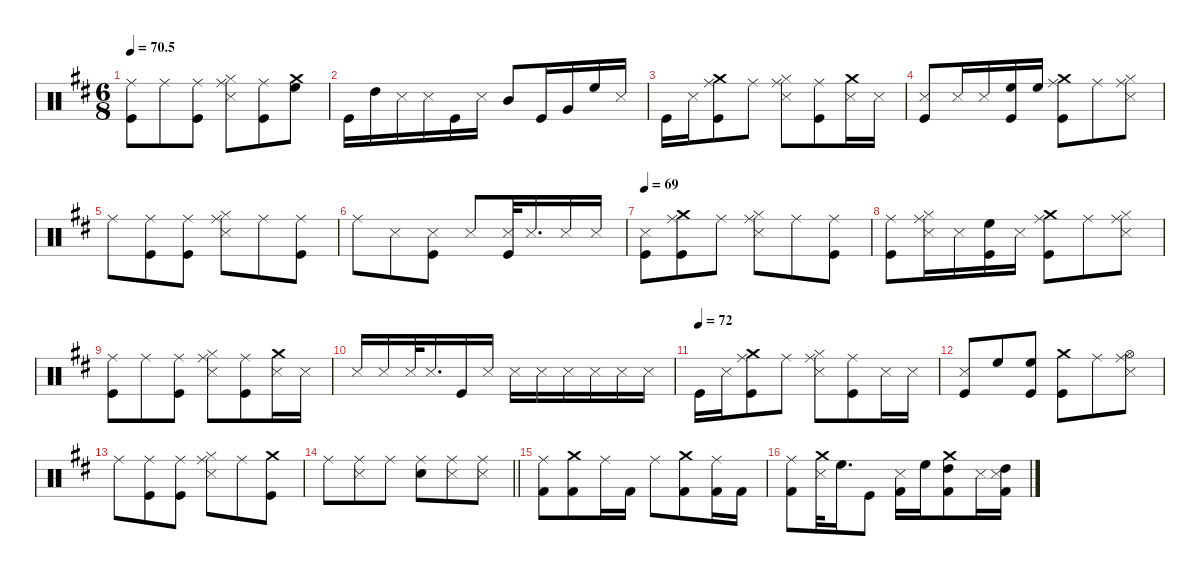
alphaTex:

\defaultSystemsLayout 4
\hideDynamics
\bracketExtendMode groupsimilarinstruments
\singleTrackTrackNamePolicy hidden
\multiTrackTrackNamePolicy hidden
\firstSystemTrackNameMode fullname
\firstSystemTrackNameOrientation horizontal
\otherSystemsTrackNameOrientation horizontal
\track ("Drumkit" "drm.") {defaultSystemsLayout 4 instrument percussion}
\staff {score}
\articulation defaults
\ts (6 8)
\tempo
70.5
\accidentals auto
\clef neutral
\ottava regular
\simile none
\ks bminor
("Kick (hit)"{acc forcenatural} "Ride (middle)"{acc #}).8{dy fff beam Down} "Ride (middle)"{acc #}.8{dy f beam Down} ("Kick (hit)"{acc forcenatural} "Ride (middle)"{acc #}).8{beam Down} ("Hi-Hat (closed)"{acc #} "Ride (middle)"{acc #} "Snare (side stick) 3"{acc forcenatural}).8{dy fff beam Down} ("Kick (hit)"{acc forcenatural} "Ride (middle)"{acc #}).8{dy f beam Down} ("High Floor Tom (hit)"{acc forcenatural} "Crash medium (hit)"{acc forcenatural}).8{dy fff beam Down} |
"Kick (hit)"{acc forcenatural}.16{dy f beam Down} "High Tom (hit)"{acc forcenatural}.16{beam Down} "Snare (side stick) 3"{acc forcenatural}.16{beam Down} "Snare (side stick) 3"{acc forcenatural}.16{dy mf beam Down} "Kick (hit)"{acc forcenatural}.16{dy f beam Down} "Snare (side stick) 3"{acc forcenatural}.16{beam Down} "Mid Tom (hit)"{acc forcenatural}.8{beam Up} "Kick (hit)"{acc forcenatural}.16{beam Up} "Very Low Tom (hit)"{acc forcenatural}.16{beam Up} "High Floor Tom (hit)"{acc forcenatural}.16{dy mp beam Up} "Snare (side stick) 3"{acc forcenatural}.16{beam Up} |
"Kick (hit)"{acc forcenatural}.16{dy f beam Down} "Snare (side stick) 3"{acc forcenatural}.16{beam Down} ("Crash medium (hit)"{acc forcenatural} "Kick (hit)"{acc forcenatural} "Ride (middle)"{acc #}).8{dy fff beam Down} "Ride (middle)"{acc #}.8{dy f beam Down} ("Snare (side stick) 3"{acc forcenatural} "Hi-Hat (closed)"{acc #} "Ride (middle)"{acc #}).8{dy fff beam Down} ("Kick (hit)"{acc forcenatural} "Ride (middle)"{acc #}).8{beam Down} ("Snare (side stick) 3"{acc forcenatural} "Crash medium (hit)"{acc forcenatural}).16{dy p beam Down} "Snare (side stick) 3"{acc forcenatural}.16{beam Down} |
("Kick (hit)"{acc forcenatural} "Snare (side stick) 3"{acc forcenatural}).8{dy f beam Up} "Snare (side stick) 3"{acc forcenatural}.16{beam Up} "Snare (side stick) 3"{acc forcenatural}.16{dy mf beam Up} ("Kick (hit)"{acc forcenatural} "High Floor Tom (hit)"{acc forcenatural}).16{dy f beam Up} "High Floor Tom (hit)"{acc forcenatural}.16{beam Up} ("Crash medium (hit)"{acc forcenatural} "Kick (hit)"{acc forcenatural} "Ride (middle)"{acc #}).8{dy fff beam Down} "Ride (middle)"{acc #}.8{dy f beam Down} ("Snare (side stick) 3"{acc forcenatural} "Hi-Hat (closed)"{acc #} "Ride (middle)"{acc #}).8{dy fff beam Down} |
"Ride (middle)"{acc #}.8{beam Down} ("Kick (hit)"{acc forcenatural} "Ride (middle)"{acc #}).8{beam Down} ("Kick (hit)"{acc forcenatural} "Ride (middle)"{acc #}).8{dy f beam Down} ("Snare (side stick) 3"{acc forcenatural} "Hi-Hat (closed)"{acc #} "Ride (middle)"{acc #}).8{dy fff beam Down} "Ride (middle)"{acc #}.8{dy mp beam Down} ("Kick (hit)"{acc forcenatural} "Ride (middle)"{acc #}).8{dy fff beam Down} |
"Ride (middle)"{acc #}.8{dy f beam Down} "Snare (side stick) 3"{acc forcenatural}.8{beam Down} ("Kick (hit)"{acc forcenatural} "Snare (side stick) 3"{acc forcenatural}).8{dy fff beam Down} "Snare (side stick) 3"{acc forcenatural}.8{beam Up} ("Kick (hit)"{acc forcenatural} "Snare (side stick) 3"{acc forcenatural}).32{dy f beam Up} "Snare (side stick) 3"{acc forcenatural}.16{d dy mf beam Up} "Snare (side stick) 3"{acc forcenatural}.16{dy f beam Up} "Snare (side stick) 3"{acc forcenatural}.16{dy mf beam Up} |
\tempo 69
("Kick (hit)"{acc forcenatural} "Snare (side stick) 3"{acc forcenatural}).8{dy f beam Down} ("Crash medium (hit)"{acc forcenatural} "Kick (hit)"{acc forcenatural} "Ride (middle)"{acc #}).8{dy fff beam Down} "Ride (middle)"{acc #}.8{dy f beam Down} ("Snare (side stick) 3"{acc forcenatural} "Hi-Hat (closed)"{acc #} "Ride (middle)"{acc #}).8{dy fff beam Down} "Ride (middle)"{acc #}.8{dy f beam Down} ("Kick (hit)"{acc forcenatural} "Ride (middle)"{acc #}).8{dy fff beam Down} |
("Kick (hit)"{acc forcenatural} "Ride (middle)"{acc #}).8{dy f beam Down} ("Hi-Hat (closed)"{acc #} "Ride (middle)"{acc #} "Snare (side stick) 3"{acc forcenatural}).16{dy fff beam Down} "Snare (side stick) 3"{acc forcenatural}.16{dy f beam Down} ("Kick (hit)"{acc forcenatural} "High Floor Tom (hit)"{acc forcenatural}).16{beam Down} "Snare (side stick) 3"{acc forcenatural}.16{beam Down} ("Crash medium (hit)"{acc forcenatural} "Kick (hit)"{acc forcenatural} "Ride (middle)"{acc #}).8{dy fff beam Down} "Ride (middle)"{acc #}.8{dy f beam Down} ("Snare (side stick) 3"{acc forcenatural} "Hi-Hat (closed)"{acc #} "Ride (middle)"{acc #}).8{dy fff beam Down} |
("Kick (hit)"{acc forcenatural} "Ride (middle)"{acc #}).8{beam Down} "Ride (middle)"{acc #}.8{dy f beam Down} ("Kick (hit)"{acc forcenatural} "Ride (middle)"{acc #}).8{beam Down} ("Snare (side stick) 3"{acc forcenatural} "Hi-Hat (closed)"{acc #} "Ride (middle)"{acc #}).8{dy fff beam Down} ("Kick (hit)"{acc forcenatural} "Ride (middle)"{acc #}).8{dy f beam Down} ("Crash medium (hit)"{acc forcenatural} "Snare (side stick) 3"{acc forcenatural}).16{dy fff beam Down} "Snare (side stick) 3"{acc forcenatural}.16{dy f beam Down} |
"Snare (side stick) 3"{acc forcenatural}.16{dy fff beam Up} "Snare (side stick) 3"{acc forcenatural}.16{dy f beam Up} "Snare (side stick) 3"{acc forcenatural}.32{dy fff beam Up} "Snare (side stick) 3"{acc forcenatural}.16{d dy ff beam Up} "Kick (hit)"{acc forcenatural}.16{dy f beam Up} "Snare (side stick) 3"{acc forcenatural}.16{beam Up} "Snare (side stick) 3"{acc forcenatural}.16{beam Down} "Snare (side stick) 3"{acc forcenatural}.16{beam Down} "Snare (side stick) 3"{acc forcenatural}.16{beam Down} "Snare (side stick) 3"{acc forcenatural}.16{dy mf beam Down} "Snare (side stick) 3"{acc forcenatural}.16{dy f beam Down} "Snare (side stick) 3"{acc forcenatural}.16{dy mp beam Down} |
\tempo (72)
"Kick (hit)"{acc forcenatural}.16{dy f beam Down} "Snare (side stick) 3"{acc forcenatural}.16{beam Down} ("Crash medium (hit)"{acc forcenatural} "Kick (hit)"{acc forcenatural} "Ride (middle)"{acc #}).8{dy fff beam Down} "Ride (middle)"{acc #}.8{dy f beam Down} ("Snare (side stick) 3"{acc forcenatural} "Hi-Hat (closed)"{acc #} "Ride (middle)"{acc #}).8{dy fff beam Down} ("Kick (hit)"{acc forcenatural} "Ride (middle)"{acc #}).8{beam Down} "Snare (side stick) 3"{acc forcenatural}.16{beam Down} "Snare (side stick) 3"{acc forcenatural}.16{dy f beam Down} |
("Kick (hit)"{acc forcenatural} "Snare (side stick) 3"{acc forcenatural}).8{beam Up} "High Floor Tom (hit)"{acc forcenatural}.8{dy fff beam Up} ("Kick (hit)"{acc forcenatural} "High Floor Tom (hit)"{acc forcenatural}).8{dy f beam Up} ("Crash medium (hit)"{acc forcenatural} "Kick (hit)"{acc forcenatural}).8{dy fff beam Down} "Ride (middle)"{acc #}.8{dy f beam Down} ("Snare (side stick) 3"{acc forcenatural} "Hi-Hat (open)"{acc #} "Ride (middle)"{acc #}).8{dy fff beam Down} |
"Ride (middle)"{acc #}.8{dy mf beam Down} ("Kick (hit)"{acc forcenatural} "Ride (middle)"{acc #}).8{dy fff beam Down} ("Kick (hit)"{acc forcenatural} "Ride (middle)"{acc #}).8{dy f beam Down} ("Snare (side stick) 3"{acc forcenatural} "Hi-Hat (closed)"{acc #} "Ride (middle)"{acc #}).8{dy fff beam Down} "Ride (middle)"{acc #}.8{dy mp beam Down} ("Kick (hit)"{acc forcenatural} "Crash medium (hit)"{acc forcenatural}).8{dy f beam Down} |
\barLineRight lightlight "Ride (middle)"{acc #}.8{dy ff beam Down}
("Ride (middle)"{acc #} "Snare (side stick) 3"{acc forcenatural}).8{beam Down} "Ride (middle)"{acc #}.8{dy f beam Down} ("Snare (hit) 2"{acc forcenatural} "Ride (middle)"{acc #}).8{beam Down} ("Snare (side stick) 3"{acc forcenatural} "Ride (middle)"{acc #}).8{beam Down} ("Snare (side stick) 3"{acc forcenatural} "Ride (middle)"{acc #}).8{beam Down} |
("Kick (hit) 2"{acc forcenatural} "Ride (middle)"{acc #}).8{beam Down} ("Crash medium (hit)"{acc forcenatural} "Kick (hit) 2"{acc forcenatural}).8{dy ff beam Down} "Ride (middle)"{acc #}.16{beam Down} "Kick (hit) 2"{acc forcenatural}.16{beam Down} "Ride (middle)"{acc #}.8{beam Down} ("Kick (hit) 2"{acc forcenatural} "Crash medium (hit)"{acc forcenatural}).8{beam Down} ("Kick (hit) 2"{acc forcenatural} "Ride (middle)"{acc #}).16{beam Down} "Kick (hit) 2"{acc forcenatural}.16{beam Down} |
("Kick (hit) 2"{acc forcenatural} "Ride (middle)"{acc #}).8{beam Down} ("Crash medium (hit)"{acc forcenatural} "Snare (side stick) 3"{acc forcenatural}).32{beam Down} "High Floor Tom (hit)"{acc forcenatural}.16{d dy f beam Down} "Kick (hit)"{acc forcenatural}.8{dy fff beam Down} ("Kick (hit) 2"{acc forcenatural} "Snare (side stick) 3"{acc forcenatural}).16{dy f beam Down} "High Floor Tom (hit)"{acc forcenatural}.16{dy mp beam Down} ("Kick (hit) 2"{acc forcenatural} "High Tom (hit)"{acc forcenatural} "Crash medium (hit)"{acc forcenatural}).8{dy f beam Down} "Snare (side stick) 3"{acc forcenatural}.16{beam Down} ("Kick (hit) 2"{acc forcenatural} "High Tom (hit)"{acc forcenatural} "Snare (side stick) 3"{acc forcenatural}).16{beam Down}
